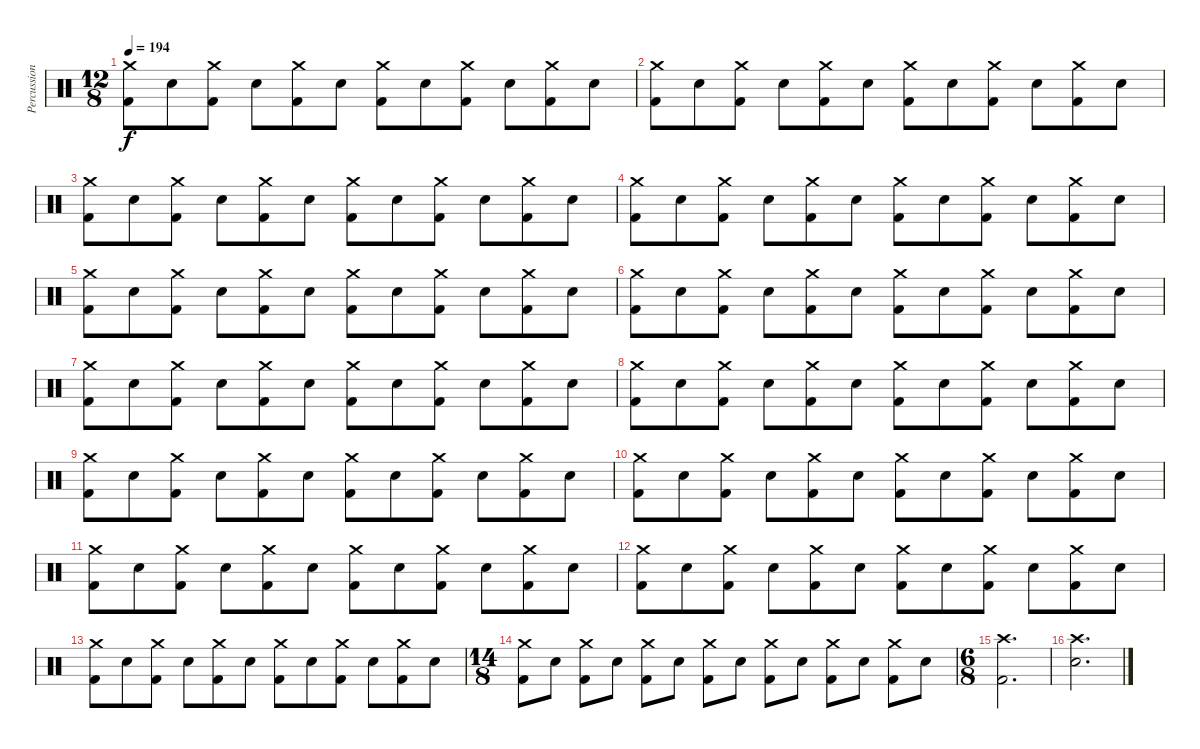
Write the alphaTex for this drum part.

\track ("Percussion" "Percussion") {instrument percussion}
\staff {score}
\articulation defaults
\ts (12 8)
\tempo 194
\clef neutral
\ks c
("Kick (hit) 2" "Crash medium (hit)").8{dy f} "Snare (hit) 2".8 ("Kick (hit) 2" "Crash medium (hit)").8 "Snare (hit) 2".8 ("Kick (hit) 2" "Crash medium (hit)").8 "Snare (hit) 2".8 ("Kick (hit) 2" "Crash medium (hit)").8 "Snare (hit) 2".8 ("Kick (hit) 2" "Crash medium (hit)").8 "Snare (hit) 2".8 ("Kick (hit) 2" "Crash medium (hit)").8 "Snare (hit) 2".8 |
("Kick (hit) 2" "Crash medium (hit)").8 "Snare (hit) 2".8 ("Kick (hit) 2" "Crash medium (hit)").8 "Snare (hit) 2".8 ("Kick (hit) 2" "Crash medium (hit)").8 "Snare (hit) 2".8 ("Kick (hit) 2" "Crash medium (hit)").8 "Snare (hit) 2".8 ("Kick (hit) 2" "Crash medium (hit)").8 "Snare (hit) 2".8 ("Kick (hit) 2" "Crash medium (hit)").8 "Snare (hit) 2".8 |
("Kick (hit) 2" "Crash medium (hit)").8 "Snare (hit) 2".8 ("Kick (hit) 2" "Crash medium (hit)").8 "Snare (hit) 2".8 ("Kick (hit) 2" "Crash medium (hit)").8 "Snare (hit) 2".8 ("Kick (hit) 2" "Crash medium (hit)").8 "Snare (hit) 2".8 ("Kick (hit) 2" "Crash medium (hit)").8 "Snare (hit) 2".8 ("Kick (hit) 2" "Crash medium (hit)").8 "Snare (hit) 2".8 |
("Kick (hit) 2" "Crash medium (hit)").8 "Snare (hit) 2".8 ("Kick (hit) 2" "Crash medium (hit)").8 "Snare (hit) 2".8 ("Kick (hit) 2" "Crash medium (hit)").8 "Snare (hit) 2".8 ("Kick (hit) 2" "Crash medium (hit)").8 "Snare (hit) 2".8 ("Kick (hit) 2" "Crash medium (hit)").8 "Snare (hit) 2".8 ("Kick (hit) 2" "Crash medium (hit)").8 "Snare (hit) 2".8 |
("Kick (hit) 2" "Crash medium (hit)").8 "Snare (hit) 2".8 ("Kick (hit) 2" "Crash medium (hit)").8 "Snare (hit) 2".8 ("Kick (hit) 2" "Crash medium (hit)").8 "Snare (hit) 2".8 ("Kick (hit) 2" "Crash medium (hit)").8 "Snare (hit) 2".8 ("Kick (hit) 2" "Crash medium (hit)").8 "Snare (hit) 2".8 ("Kick (hit) 2" "Crash medium (hit)").8 "Snare (hit) 2".8 |
("Kick (hit) 2" "Crash medium (hit)").8 "Snare (hit) 2".8 ("Kick (hit) 2" "Crash medium (hit)").8 "Snare (hit) 2".8 ("Kick (hit) 2" "Crash medium (hit)").8 "Snare (hit) 2".8 ("Kick (hit) 2" "Crash medium (hit)").8 "Snare (hit) 2".8 ("Kick (hit) 2" "Crash medium (hit)").8 "Snare (hit) 2".8 ("Kick (hit) 2" "Crash medium (hit)").8 "Snare (hit) 2".8 |
("Kick (hit) 2" "Crash medium (hit)").8 "Snare (hit) 2".8 ("Kick (hit) 2" "Crash medium (hit)").8 "Snare (hit) 2".8 ("Kick (hit) 2" "Crash medium (hit)").8 "Snare (hit) 2".8 ("Kick (hit) 2" "Crash medium (hit)").8 "Snare (hit) 2".8 ("Kick (hit) 2" "Crash medium (hit)").8 "Snare (hit) 2".8 ("Kick (hit) 2" "Crash medium (hit)").8 "Snare (hit) 2".8 |
("Kick (hit) 2" "Crash medium (hit)").8 "Snare (hit) 2".8 ("Kick (hit) 2" "Crash medium (hit)").8 "Snare (hit) 2".8 ("Kick (hit) 2" "Crash medium (hit)").8 "Snare (hit) 2".8 ("Kick (hit) 2" "Crash medium (hit)").8 "Snare (hit) 2".8 ("Kick (hit) 2" "Crash medium (hit)").8 "Snare (hit) 2".8 ("Kick (hit) 2" "Crash medium (hit)").8 "Snare (hit) 2".8 |
("Kick (hit) 2" "Crash medium (hit)").8 "Snare (hit) 2".8 ("Kick (hit) 2" "Crash medium (hit)").8 "Snare (hit) 2".8 ("Kick (hit) 2" "Crash medium (hit)").8 "Snare (hit) 2".8 ("Kick (hit) 2" "Crash medium (hit)").8 "Snare (hit) 2".8 ("Kick (hit) 2" "Crash medium (hit)").8 "Snare (hit) 2".8 ("Kick (hit) 2" "Crash medium (hit)").8 "Snare (hit) 2".8 |
("Kick (hit) 2" "Crash medium (hit)").8 "Snare (hit) 2".8 ("Kick (hit) 2" "Crash medium (hit)").8 "Snare (hit) 2".8 ("Kick (hit) 2" "Crash medium (hit)").8 "Snare (hit) 2".8 ("Kick (hit) 2" "Crash medium (hit)").8 "Snare (hit) 2".8 ("Kick (hit) 2" "Crash medium (hit)").8 "Snare (hit) 2".8 ("Kick (hit) 2" "Crash medium (hit)").8 "Snare (hit) 2".8 |
("Kick (hit) 2" "Crash medium (hit)").8 "Snare (hit) 2".8 ("Kick (hit) 2" "Crash medium (hit)").8 "Snare (hit) 2".8 ("Kick (hit) 2" "Crash medium (hit)").8 "Snare (hit) 2".8 ("Kick (hit) 2" "Crash medium (hit)").8 "Snare (hit) 2".8 ("Kick (hit) 2" "Crash medium (hit)").8 "Snare (hit) 2".8 ("Kick (hit) 2" "Crash medium (hit)").8 "Snare (hit) 2".8 |
("Kick (hit) 2" "Crash medium (hit)").8 "Snare (hit) 2".8 ("Kick (hit) 2" "Crash medium (hit)").8 "Snare (hit) 2".8 ("Kick (hit) 2" "Crash medium (hit)").8 "Snare (hit) 2".8 ("Kick (hit) 2" "Crash medium (hit)").8 "Snare (hit) 2".8 ("Kick (hit) 2" "Crash medium (hit)").8 "Snare (hit) 2".8 ("Kick (hit) 2" "Crash medium (hit)").8 "Snare (hit) 2".8 |
("Kick (hit) 2" "Crash medium (hit)").8 "Snare (hit) 2".8 ("Kick (hit) 2" "Crash medium (hit)").8 "Snare (hit) 2".8 ("Kick (hit) 2" "Crash medium (hit)").8 "Snare (hit) 2".8 ("Kick (hit) 2" "Crash medium (hit)").8 "Snare (hit) 2".8 ("Kick (hit) 2" "Crash medium (hit)").8 "Snare (hit) 2".8 ("Kick (hit) 2" "Crash medium (hit)").8 "Snare (hit) 2".8 |
\ts (14 8)
("Kick (hit) 2" "Crash medium (hit)").8 "Snare (hit) 2".8 ("Kick (hit) 2" "Crash medium (hit)").8 "Snare (hit) 2".8 ("Kick (hit) 2" "Crash medium (hit)").8 "Snare (hit) 2".8 ("Kick (hit) 2" "Crash medium (hit)").8 "Snare (hit) 2".8 ("Kick (hit) 2" "Crash medium (hit)").8 "Snare (hit) 2".8 ("Kick (hit) 2" "Crash medium (hit)").8 "Snare (hit) 2".8 ("Kick (hit) 2" "Crash medium (hit)").8 "Snare (hit) 2".8 |
\ts (6 8)
("Kick (hit) 2" "Crash high (hit)").2{d} |
("Snare (hit) 2" "Crash high (hit)").2{d}
